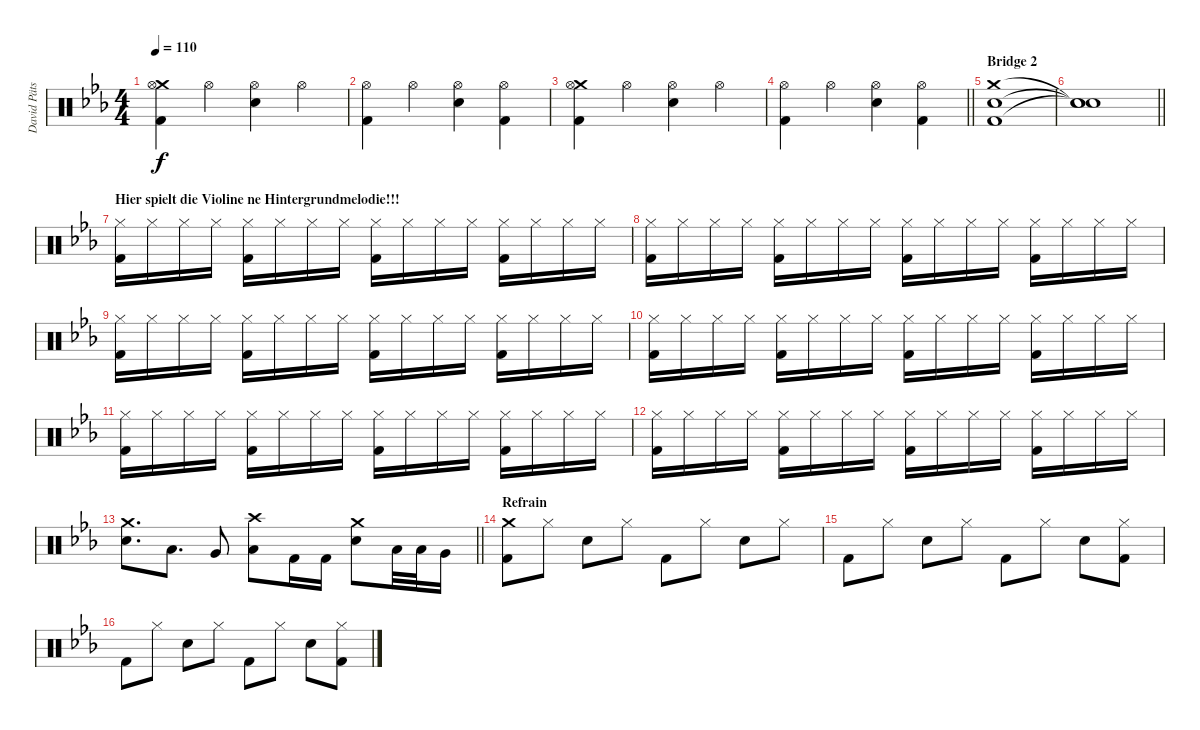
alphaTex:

\track ("David Pätsch" "David Päts") {instrument percussion}
\staff {score}
\articulation defaults
\ts (4 4)
\tempo 110
\clef neutral
\ks cminor
("Crash medium (hit)" "Hi-Hat (open)" "Kick (hit) 2").4{dy f} "Hi-Hat (open)".4 ("Hi-Hat (open)" "Snare (hit) 2").4 "Hi-Hat (open)".4 |
("Hi-Hat (open)" "Kick (hit) 2").4 "Hi-Hat (open)".4 ("Hi-Hat (open)" "Snare (hit) 2").4 ("Hi-Hat (open)" "Kick (hit) 2").4 |
("Crash medium (hit)" "Hi-Hat (open)" "Kick (hit) 2").4 "Hi-Hat (open)".4 ("Hi-Hat (open)" "Snare (hit) 2").4 "Hi-Hat (open)".4 |
\barLineRight lightlight
("Hi-Hat (open)" "Kick (hit) 2").4 "Hi-Hat (open)".4 ("Hi-Hat (open)" "Snare (hit) 2").4 ("Hi-Hat (open)" "Kick (hit) 2").4 |
\section ("" "Bridge 2")
("Crash medium (hit)" "Snare (hit) 2" "Kick (hit) 2").1 |
\barLineRight lightlight
("Snare (hit)"{t} "Snare (hit)"{t} "Snare (hit)"{t}).1 |
\section ("" "Hier spielt die Violine ne Hintergrundmelodie!!!")
("Hi-Hat (closed)" "Kick (hit) 2").16{volume 10} "Hi-Hat (closed)".16 "Hi-Hat (closed)".16 "Hi-Hat (closed)".16 ("Hi-Hat (closed)" "Kick (hit) 2").16 "Hi-Hat (closed)".16 "Hi-Hat (closed)".16 "Hi-Hat (closed)".16 ("Hi-Hat (closed)" "Kick (hit) 2").16 "Hi-Hat (closed)".16 "Hi-Hat (closed)".16 "Hi-Hat (closed)".16 ("Hi-Hat (closed)" "Kick (hit) 2").16 "Hi-Hat (closed)".16 "Hi-Hat (closed)".16 "Hi-Hat (closed)".16 |
("Hi-Hat (closed)" "Kick (hit) 2").16 "Hi-Hat (closed)".16 "Hi-Hat (closed)".16 "Hi-Hat (closed)".16 ("Hi-Hat (closed)" "Kick (hit) 2").16 "Hi-Hat (closed)".16 "Hi-Hat (closed)".16 "Hi-Hat (closed)".16 ("Hi-Hat (closed)" "Kick (hit) 2").16 "Hi-Hat (closed)".16 "Hi-Hat (closed)".16 "Hi-Hat (closed)".16 ("Hi-Hat (closed)" "Kick (hit) 2").16 "Hi-Hat (closed)".16 "Hi-Hat (closed)".16 "Hi-Hat (closed)".16 |
("Hi-Hat (closed)" "Kick (hit) 2").16 "Hi-Hat (closed)".16 "Hi-Hat (closed)".16 "Hi-Hat (closed)".16 ("Hi-Hat (closed)" "Kick (hit) 2").16 "Hi-Hat (closed)".16 "Hi-Hat (closed)".16 "Hi-Hat (closed)".16 ("Hi-Hat (closed)" "Kick (hit) 2").16 "Hi-Hat (closed)".16 "Hi-Hat (closed)".16 "Hi-Hat (closed)".16 ("Hi-Hat (closed)" "Kick (hit) 2").16 "Hi-Hat (closed)".16 "Hi-Hat (closed)".16 "Hi-Hat (closed)".16 |
("Hi-Hat (closed)" "Kick (hit) 2").16 "Hi-Hat (closed)".16 "Hi-Hat (closed)".16 "Hi-Hat (closed)".16 ("Hi-Hat (closed)" "Kick (hit) 2").16 "Hi-Hat (closed)".16 "Hi-Hat (closed)".16 "Hi-Hat (closed)".16 ("Hi-Hat (closed)" "Kick (hit) 2").16 "Hi-Hat (closed)".16 "Hi-Hat (closed)".16 "Hi-Hat (closed)".16 ("Hi-Hat (closed)" "Kick (hit) 2").16 "Hi-Hat (closed)".16 "Hi-Hat (closed)".16 "Hi-Hat (closed)".16 |
("Hi-Hat (closed)" "Kick (hit) 2").16 "Hi-Hat (closed)".16 "Hi-Hat (closed)".16 "Hi-Hat (closed)".16 ("Hi-Hat (closed)" "Kick (hit) 2").16 "Hi-Hat (closed)".16 "Hi-Hat (closed)".16 "Hi-Hat (closed)".16 ("Hi-Hat (closed)" "Kick (hit) 2").16 "Hi-Hat (closed)".16 "Hi-Hat (closed)".16 "Hi-Hat (closed)".16 ("Hi-Hat (closed)" "Kick (hit) 2").16 "Hi-Hat (closed)".16 "Hi-Hat (closed)".16 "Hi-Hat (closed)".16 |
("Hi-Hat (closed)" "Kick (hit) 2").16 "Hi-Hat (closed)".16 "Hi-Hat (closed)".16 "Hi-Hat (closed)".16 ("Hi-Hat (closed)" "Kick (hit) 2").16 "Hi-Hat (closed)".16 "Hi-Hat (closed)".16 "Hi-Hat (closed)".16 ("Hi-Hat (closed)" "Kick (hit) 2").16 "Hi-Hat (closed)".16 "Hi-Hat (closed)".16 "Hi-Hat (closed)".16 ("Hi-Hat (closed)" "Kick (hit) 2").16 "Hi-Hat (closed)".16 "Hi-Hat (closed)".16 "Hi-Hat (closed)".16 |
\barLineRight lightlight
("Snare (hit) 2" "Crash medium (hit)").8{d} "Low Tom (hit)".8{d} "Very Low Tom (hit)".8 ("Crash high (hit)" "Low Floor Tom (hit)").8 "Kick (hit) 2".16 "Kick (hit) 2".16 ("Crash medium (hit)" "Snare (hit) 2").8 "Low Floor Tom (hit)".32 "Low Tom (hit)".32 "Very Low Tom (hit)".16 |
\section ("" "Refrain")
("Kick (hit) 2" "Crash medium (hit)").8 "Hi-Hat (closed)".8 "Snare (hit) 2".8 "Hi-Hat (closed)".8 "Kick (hit) 2".8 "Hi-Hat (closed)".8 "Snare (hit) 2".8 "Hi-Hat (closed)".8 |
"Kick (hit) 2".8 "Hi-Hat (closed)".8 "Snare (hit) 2".8 "Hi-Hat (closed)".8 "Kick (hit) 2".8 "Hi-Hat (closed)".8 "Snare (hit) 2".8 ("Kick (hit) 2" "Hi-Hat (closed)").8 |
"Kick (hit) 2".8 "Hi-Hat (closed)".8 "Snare (hit) 2".8 "Hi-Hat (closed)".8 "Kick (hit) 2".8 "Hi-Hat (closed)".8 "Snare (hit) 2".8 ("Kick (hit) 2" "Hi-Hat (closed)").8
